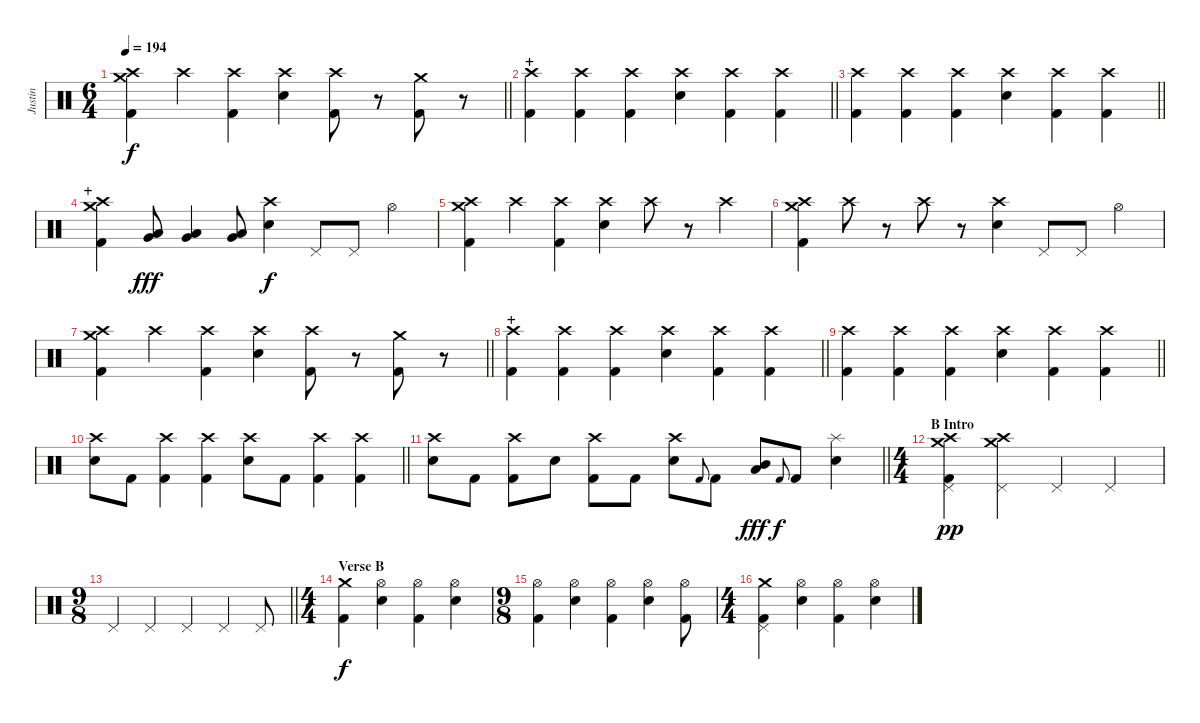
\track ("Justin" "Justin") {instrument percussion}
\staff {score}
\articulation defaults
\ts (6 4)
\tempo 194
\clef neutral
\barLineRight lightlight
\ks c
("Crash medium (hit)" "Crash high (hit)" "Kick (hit) 2").4{dy f} "Crash high (hit)".4 ("Crash high (hit)" "Kick (hit) 2").4 ("Crash high (hit)" "Electric Snare (hit)").4 ("Crash high (hit)" "Kick (hit) 2").8 r.8 ("Crash medium (hit)" "Kick (hit) 2").8 r.8 |
\section ("" "+")
\barLineRight lightlight
("Crash high (hit)" "Kick (hit) 2").4 ("Crash high (hit)" "Kick (hit) 2").4 ("Crash high (hit)" "Kick (hit) 2").4 ("Crash high (hit)" "Electric Snare (hit)").4 ("Crash high (hit)" "Kick (hit) 2").4 ("Crash high (hit)" "Kick (hit) 2").4 |
\barLineRight lightlight
("Crash high (hit)" "Kick (hit) 2").4 ("Crash high (hit)" "Kick (hit) 2").4 ("Crash high (hit)" "Kick (hit) 2").4 ("Crash high (hit)" "Electric Snare (hit)").4 ("Crash high (hit)" "Kick (hit) 2").4 ("Crash high (hit)" "Kick (hit) 2").4 |
\section ("" "+")
("Crash medium (hit)" "Crash high (hit)" "Kick (hit) 2").4 ("Low Tom (hit)" "Very Low Tom (hit)").8{dy fff} ("Low Tom (hit)" "Very Low Tom (hit)").4 ("Low Tom (hit)" "Very Low Tom (hit)").8 ("Crash high (hit)" "Electric Snare (hit)").4{dy f} "Pedal Hi-Hat (hit)".8 "Pedal Hi-Hat (hit)".8 "Hi-Hat (open)".4 |
("Crash medium (hit)" "Crash high (hit)" "Kick (hit) 2").4 "Crash high (hit)".4 ("Crash high (hit)" "Kick (hit) 2").4 ("Crash high (hit)" "Electric Snare (hit)").4 "Crash high (hit)".8 r.8 "Crash high (hit)".4 |
("Crash medium (hit)" "Crash high (hit)" "Kick (hit) 2").4 "Crash high (hit)".8 r.8 "Crash high (hit)".8 r.8 ("Crash high (hit)" "Electric Snare (hit)").4 "Pedal Hi-Hat (hit)".8 "Pedal Hi-Hat (hit)".8 "Hi-Hat (open)".4 |
\barLineRight lightlight
("Crash medium (hit)" "Crash high (hit)" "Kick (hit) 2").4 "Crash high (hit)".4 ("Crash high (hit)" "Kick (hit) 2").4 ("Crash high (hit)" "Electric Snare (hit)").4 ("Crash high (hit)" "Kick (hit) 2").8 r.8 ("Crash medium (hit)" "Kick (hit) 2").8 r.8 |
\section ("" "+")
\barLineRight lightlight
("Crash high (hit)" "Kick (hit) 2").4 ("Crash high (hit)" "Kick (hit) 2").4 ("Crash high (hit)" "Kick (hit) 2").4 ("Crash high (hit)" "Electric Snare (hit)").4 ("Crash high (hit)" "Kick (hit) 2").4 ("Crash high (hit)" "Kick (hit) 2").4 |
\barLineRight lightlight
("Crash high (hit)" "Kick (hit) 2").4 ("Crash high (hit)" "Kick (hit) 2").4 ("Crash high (hit)" "Kick (hit) 2").4 ("Crash high (hit)" "Electric Snare (hit)").4 ("Crash high (hit)" "Kick (hit) 2").4 ("Crash high (hit)" "Kick (hit) 2").4 |
\barLineRight lightlight
("Crash high (hit)" "Electric Snare (hit)").8 "Kick (hit) 2".8 ("Crash high (hit)" "Kick (hit) 2").4 ("Crash high (hit)" "Kick (hit) 2").4 ("Crash high (hit)" "Electric Snare (hit)").8 "Kick (hit) 2".8 ("Crash high (hit)" "Kick (hit) 2").4 ("Crash high (hit)" "Kick (hit) 2").4 |
\barLineRight lightlight
("Crash high (hit)" "Electric Snare (hit)").8 "Kick (hit) 2".8 ("Crash high (hit)" "Kick (hit) 2").8 "Electric Snare (hit)".8 ("Crash high (hit)" "Kick (hit) 2").8 "Kick (hit) 2".8 ("Crash high (hit)" "Electric Snare (hit)").8 "Kick (hit) 2".8{gr onbeat} "Kick (hit) 2".8 ("Mid Tom (hit)" "Low Tom (hit)").8{bu 120 dy fff} "Kick (hit) 2".8{gr onbeat dy f} "Kick (hit) 2".8 ("Splash (hit)" "Electric Snare (hit)").4 |
\ts (4 4)
\section ("" "B Intro")
("Crash medium (hit)" "Crash high (hit)" "Pedal Hi-Hat (hit)" "Kick (hit) 2").4{dy pp} ("Crash medium (hit)" "Crash high (hit)" "Pedal Hi-Hat (hit)").4 "Pedal Hi-Hat (hit)".4 "Pedal Hi-Hat (hit)".4 |
\ts (9 8)
\barLineRight lightlight "Pedal Hi-Hat (hit)".4 "Pedal Hi-Hat (hit)".4 "Pedal Hi-Hat (hit)".4 "Pedal Hi-Hat (hit)".4 "Pedal Hi-Hat (hit)".8
|
\ts (4 4)
\section ("" "Verse B")
("Crash medium (hit)" "Kick (hit) 2").4{dy f} ("Hi-Hat (open)" "Electric Snare (hit)").4 ("Hi-Hat (open)" "Kick (hit) 2").4 ("Hi-Hat (open)" "Electric Snare (hit)").4 |
\ts (9 8)
("Hi-Hat (open)" "Kick (hit) 2").4 ("Hi-Hat (open)" "Electric Snare (hit)").4 ("Hi-Hat (open)" "Kick (hit) 2").4 ("Hi-Hat (open)" "Electric Snare (hit)").4 ("Hi-Hat (open)" "Kick (hit) 2").8 |
\ts (4 4)
("Crash medium (hit)" "Pedal Hi-Hat (hit)" "Kick (hit) 2").4 ("Hi-Hat (open)" "Electric Snare (hit)").4 ("Hi-Hat (open)" "Kick (hit) 2").4 ("Hi-Hat (open)" "Electric Snare (hit)").4
